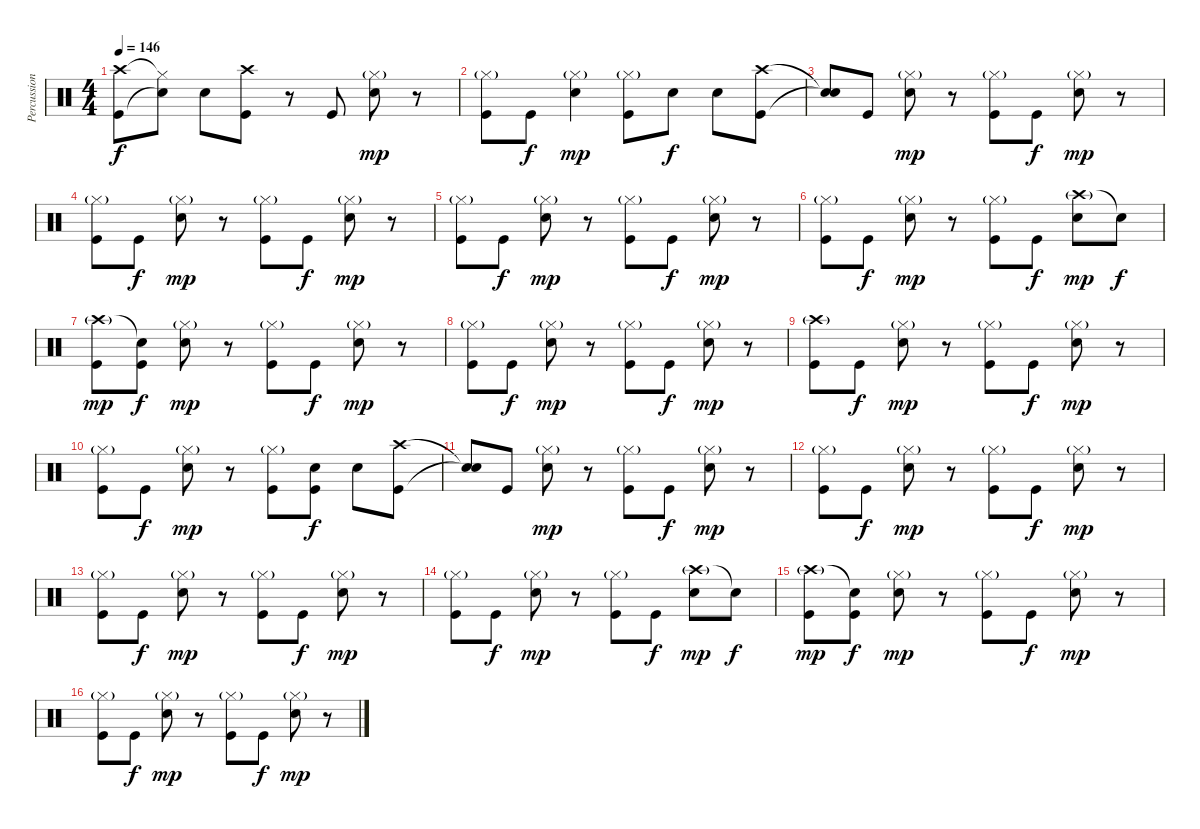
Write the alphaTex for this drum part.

\track ("Percussion" "Percussion") {instrument percussion}
\staff {score}
\articulation defaults
\ts (4 4)
\tempo 146
\clef neutral
\ks c
("Crash high (hit)" "Kick (hit)").8{dy f} ("Hi-Hat (closed)"{t} "Snare (hit)"{t}).8 "Snare (hit) 2".8 ("Crash high (hit)" "Kick (hit)").8 r.8 "Kick (hit)".8 ("Hi-Hat (closed)"{g} "Snare (hit) 2").8{dy mp} r.8 |
("Hi-Hat (closed)"{g} "Kick (hit)").8 "Kick (hit)".8{dy f} ("Hi-Hat (closed)"{g} "Snare (hit) 2").4{dy mp} ("Hi-Hat (closed)"{g} "Kick (hit)").8 "Snare (hit) 2".8{dy f} "Snare (hit) 2".8 ("Crash high (hit)" "Kick (hit)").8 |
("Snare (hit)"{t} "Snare (hit)"{t}).8 "Kick (hit)".8 ("Hi-Hat (closed)"{g} "Snare (hit) 2").8{dy mp} r.8 ("Hi-Hat (closed)"{g} "Kick (hit)").8 "Kick (hit)".8{dy f} ("Hi-Hat (closed)"{g} "Snare (hit) 2").8{dy mp} r.8 |
("Hi-Hat (closed)"{g} "Kick (hit)").8 "Kick (hit)".8{dy f} ("Hi-Hat (closed)"{g} "Snare (hit) 2").8{dy mp} r.8 ("Hi-Hat (closed)"{g} "Kick (hit)").8 "Kick (hit)".8{dy f} ("Hi-Hat (closed)"{g} "Snare (hit) 2").8{dy mp} r.8 |
("Hi-Hat (closed)"{g} "Kick (hit)").8 "Kick (hit)".8{dy f} ("Hi-Hat (closed)"{g} "Snare (hit) 2").8{dy mp} r.8 ("Hi-Hat (closed)"{g} "Kick (hit)").8 "Kick (hit)".8{dy f} ("Hi-Hat (closed)"{g} "Snare (hit) 2").8{dy mp} r.8 |
("Hi-Hat (closed)"{g} "Kick (hit)").8 "Kick (hit)".8{dy f} ("Hi-Hat (closed)"{g} "Snare (hit) 2").8{dy mp} r.8 ("Hi-Hat (closed)"{g} "Kick (hit)").8 "Kick (hit)".8{dy f} ("Crash high (hit)"{g} "Snare (hit) 2").8{dy mp} "Snare (hit)"{t}.8{dy f} |
("Crash high (hit)"{g} "Kick (hit)").8{dy mp} ("Snare (hit)"{t} "Kick (hit)").8{dy f} ("Hi-Hat (closed)"{g} "Snare (hit) 2").8{dy mp} r.8 ("Hi-Hat (closed)"{g} "Kick (hit)").8 "Kick (hit)".8{dy f} ("Hi-Hat (closed)"{g} "Snare (hit) 2").8{dy mp} r.8 |
("Hi-Hat (closed)"{g} "Kick (hit)").8 "Kick (hit)".8{dy f} ("Hi-Hat (closed)"{g} "Snare (hit) 2").8{dy mp} r.8 ("Hi-Hat (closed)"{g} "Kick (hit)").8 "Kick (hit)".8{dy f} ("Hi-Hat (closed)"{g} "Snare (hit) 2").8{dy mp} r.8 |
("Crash high (hit)"{g} "Kick (hit)").8 "Kick (hit)".8{dy f} ("Hi-Hat (closed)"{g} "Snare (hit) 2").8{dy mp} r.8 ("Hi-Hat (closed)"{g} "Kick (hit)").8 "Kick (hit)".8{dy f} ("Hi-Hat (closed)"{g} "Snare (hit) 2").8{dy mp} r.8 |
("Hi-Hat (closed)"{g} "Kick (hit)").8 "Kick (hit)".8{dy f} ("Hi-Hat (closed)"{g} "Snare (hit) 2").8{dy mp} r.8 ("Hi-Hat (closed)"{g} "Kick (hit)").8 ("Snare (hit) 2" "Kick (hit)").8{dy f} "Snare (hit) 2".8 ("Crash high (hit)" "Kick (hit)").8 |
("Snare (hit)"{t} "Snare (hit)"{t}).8 "Kick (hit)".8 ("Hi-Hat (closed)"{g} "Snare (hit) 2").8{dy mp} r.8 ("Hi-Hat (closed)"{g} "Kick (hit)").8 "Kick (hit)".8{dy f} ("Hi-Hat (closed)"{g} "Snare (hit) 2").8{dy mp} r.8 |
("Hi-Hat (closed)"{g} "Kick (hit)").8 "Kick (hit)".8{dy f} ("Hi-Hat (closed)"{g} "Snare (hit) 2").8{dy mp} r.8 ("Hi-Hat (closed)"{g} "Kick (hit)").8 "Kick (hit)".8{dy f} ("Hi-Hat (closed)"{g} "Snare (hit) 2").8{dy mp} r.8 |
("Hi-Hat (closed)"{g} "Kick (hit)").8 "Kick (hit)".8{dy f} ("Hi-Hat (closed)"{g} "Snare (hit) 2").8{dy mp} r.8 ("Hi-Hat (closed)"{g} "Kick (hit)").8 "Kick (hit)".8{dy f} ("Hi-Hat (closed)"{g} "Snare (hit) 2").8{dy mp} r.8 |
("Hi-Hat (closed)"{g} "Kick (hit)").8 "Kick (hit)".8{dy f} ("Hi-Hat (closed)"{g} "Snare (hit) 2").8{dy mp} r.8 ("Hi-Hat (closed)"{g} "Kick (hit)").8 "Kick (hit)".8{dy f} ("Crash high (hit)"{g} "Snare (hit) 2").8{dy mp} "Snare (hit)"{t}.8{dy f} |
("Crash high (hit)"{g} "Kick (hit)").8{dy mp} ("Snare (hit)"{t} "Kick (hit)").8{dy f} ("Hi-Hat (closed)"{g} "Snare (hit) 2").8{dy mp} r.8 ("Hi-Hat (closed)"{g} "Kick (hit)").8 "Kick (hit)".8{dy f} ("Hi-Hat (closed)"{g} "Snare (hit) 2").8{dy mp} r.8 |
("Hi-Hat (closed)"{g} "Kick (hit)").8 "Kick (hit)".8{dy f} ("Hi-Hat (closed)"{g} "Snare (hit) 2").8{dy mp} r.8 ("Hi-Hat (closed)"{g} "Kick (hit)").8 "Kick (hit)".8{dy f} ("Hi-Hat (closed)"{g} "Snare (hit) 2").8{dy mp} r.8
